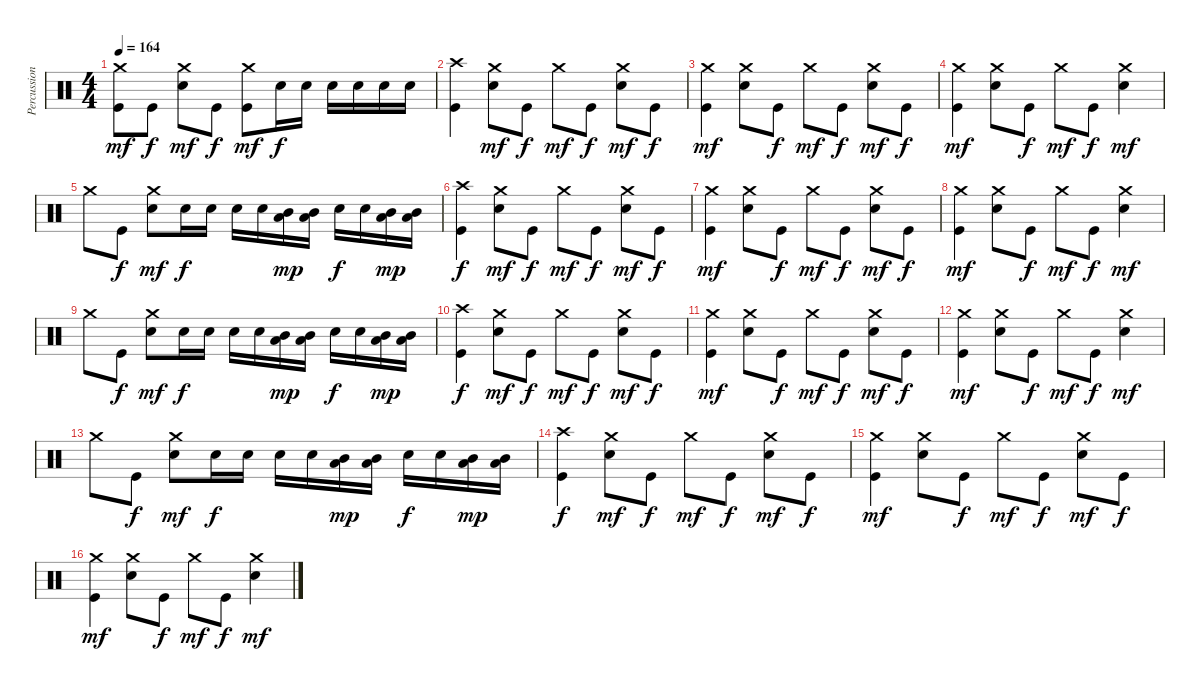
\track ("Percussion" "Percussion") {instrument percussion}
\staff {score}
\articulation defaults
\ts (4 4)
\tempo 164
\clef neutral
\ks c
("Kick (hit)" "Crash medium (hit)").8{dy mf} "Kick (hit)".8{dy f} ("Electric Snare (hit)" "Crash medium (hit)").8{dy mf} "Kick (hit)".8{dy f} ("Kick (hit)" "Crash medium (hit)").8{dy mf} "Electric Snare (hit)".16{dy f} "Electric Snare (hit)".16 "Electric Snare (hit)".16 "Electric Snare (hit)".16 "Electric Snare (hit)".16 "Electric Snare (hit)".16 |
("Kick (hit)" "Crash high (hit)").4 ("Electric Snare (hit)" "Crash medium (hit)").8{dy mf} "Kick (hit)".8{dy f} "Crash medium (hit)".8{dy mf} "Kick (hit)".8{dy f} ("Electric Snare (hit)" "Crash medium (hit)").8{dy mf} "Kick (hit)".8{dy f} |
("Kick (hit)" "Crash medium (hit)").4{dy mf} ("Electric Snare (hit)" "Crash medium (hit)").8 "Kick (hit)".8{dy f} "Crash medium (hit)".8{dy mf} "Kick (hit)".8{dy f} ("Electric Snare (hit)" "Crash medium (hit)").8{dy mf} "Kick (hit)".8{dy f} |
("Kick (hit)" "Crash medium (hit)").4{dy mf} ("Electric Snare (hit)" "Crash medium (hit)").8 "Kick (hit)".8{dy f} "Crash medium (hit)".8{dy mf} "Kick (hit)".8{dy f} ("Electric Snare (hit)" "Crash medium (hit)").4{dy mf} |
"Crash medium (hit)".8 "Kick (hit)".8{dy f} ("Electric Snare (hit)" "Crash medium (hit)").8{dy mf} "Electric Snare (hit)".16{dy f} "Electric Snare (hit)".16 "Electric Snare (hit)".16 "Electric Snare (hit)".16 ("Mid Tom (hit)" "Low Tom (hit)").16{dy mp} ("Mid Tom (hit)" "Low Tom (hit)").16 "Electric Snare (hit)".16{dy f} "Electric Snare (hit)".16 ("Mid Tom (hit)" "Low Tom (hit)").16{dy mp} ("Mid Tom (hit)" "Low Tom (hit)").16 |
("Kick (hit)" "Crash high (hit)").4{dy f} ("Electric Snare (hit)" "Crash medium (hit)").8{dy mf} "Kick (hit)".8{dy f} "Crash medium (hit)".8{dy mf} "Kick (hit)".8{dy f} ("Electric Snare (hit)" "Crash medium (hit)").8{dy mf} "Kick (hit)".8{dy f} |
("Kick (hit)" "Crash medium (hit)").4{dy mf} ("Electric Snare (hit)" "Crash medium (hit)").8 "Kick (hit)".8{dy f} "Crash medium (hit)".8{dy mf} "Kick (hit)".8{dy f} ("Electric Snare (hit)" "Crash medium (hit)").8{dy mf} "Kick (hit)".8{dy f} |
("Kick (hit)" "Crash medium (hit)").4{dy mf} ("Electric Snare (hit)" "Crash medium (hit)").8 "Kick (hit)".8{dy f} "Crash medium (hit)".8{dy mf} "Kick (hit)".8{dy f} ("Electric Snare (hit)" "Crash medium (hit)").4{dy mf} |
"Crash medium (hit)".8 "Kick (hit)".8{dy f} ("Electric Snare (hit)" "Crash medium (hit)").8{dy mf} "Electric Snare (hit)".16{dy f} "Electric Snare (hit)".16 "Electric Snare (hit)".16 "Electric Snare (hit)".16 ("Mid Tom (hit)" "Low Tom (hit)").16{dy mp} ("Mid Tom (hit)" "Low Tom (hit)").16 "Electric Snare (hit)".16{dy f} "Electric Snare (hit)".16 ("Mid Tom (hit)" "Low Tom (hit)").16{dy mp} ("Mid Tom (hit)" "Low Tom (hit)").16 |
("Kick (hit)" "Crash high (hit)").4{dy f} ("Electric Snare (hit)" "Crash medium (hit)").8{dy mf} "Kick (hit)".8{dy f} "Crash medium (hit)".8{dy mf} "Kick (hit)".8{dy f} ("Electric Snare (hit)" "Crash medium (hit)").8{dy mf} "Kick (hit)".8{dy f} |
("Kick (hit)" "Crash medium (hit)").4{dy mf} ("Electric Snare (hit)" "Crash medium (hit)").8 "Kick (hit)".8{dy f} "Crash medium (hit)".8{dy mf} "Kick (hit)".8{dy f} ("Electric Snare (hit)" "Crash medium (hit)").8{dy mf} "Kick (hit)".8{dy f} |
("Kick (hit)" "Crash medium (hit)").4{dy mf} ("Electric Snare (hit)" "Crash medium (hit)").8 "Kick (hit)".8{dy f} "Crash medium (hit)".8{dy mf} "Kick (hit)".8{dy f} ("Electric Snare (hit)" "Crash medium (hit)").4{dy mf} |
"Crash medium (hit)".8 "Kick (hit)".8{dy f} ("Electric Snare (hit)" "Crash medium (hit)").8{dy mf} "Electric Snare (hit)".16{dy f} "Electric Snare (hit)".16 "Electric Snare (hit)".16 "Electric Snare (hit)".16 ("Mid Tom (hit)" "Low Tom (hit)").16{dy mp} ("Mid Tom (hit)" "Low Tom (hit)").16 "Electric Snare (hit)".16{dy f} "Electric Snare (hit)".16 ("Mid Tom (hit)" "Low Tom (hit)").16{dy mp} ("Mid Tom (hit)" "Low Tom (hit)").16 |
("Kick (hit)" "Crash high (hit)").4{dy f} ("Electric Snare (hit)" "Crash medium (hit)").8{dy mf} "Kick (hit)".8{dy f} "Crash medium (hit)".8{dy mf} "Kick (hit)".8{dy f} ("Electric Snare (hit)" "Crash medium (hit)").8{dy mf} "Kick (hit)".8{dy f} |
("Kick (hit)" "Crash medium (hit)").4{dy mf} ("Electric Snare (hit)" "Crash medium (hit)").8 "Kick (hit)".8{dy f} "Crash medium (hit)".8{dy mf} "Kick (hit)".8{dy f} ("Electric Snare (hit)" "Crash medium (hit)").8{dy mf} "Kick (hit)".8{dy f} |
("Kick (hit)" "Crash medium (hit)").4{dy mf} ("Electric Snare (hit)" "Crash medium (hit)").8 "Kick (hit)".8{dy f} "Crash medium (hit)".8{dy mf} "Kick (hit)".8{dy f} ("Electric Snare (hit)" "Crash medium (hit)").4{dy mf}
